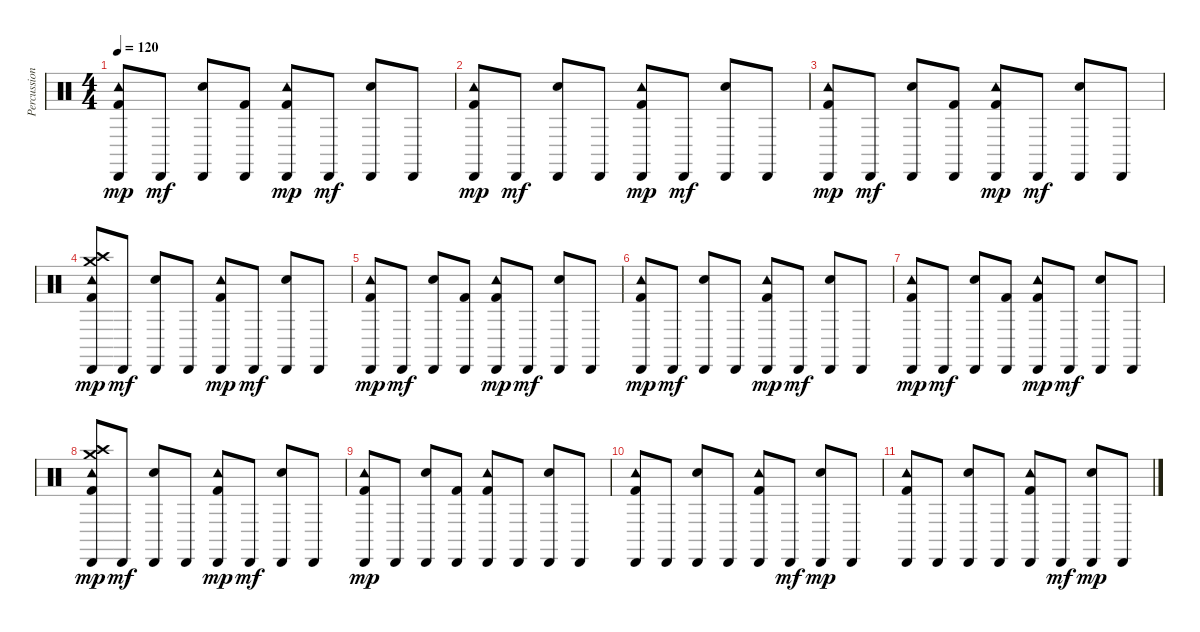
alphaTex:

\track ("Percussions" "Percussion") {instrument percussion}
\staff {score}
\articulation defaults
\ts (4 4)
\tempo 120
\clef neutral
\ks c
("Tambourine (hit)" "Cabasa (hit)" "Kick (hit) 2").8{dy mp} "Cabasa (hit)".8{dy mf} ("Cabasa (hit)" "Electric Snare (hit)").8 ("Cabasa (hit)" "Kick (hit) 2").8 ("Tambourine (hit)" "Cabasa (hit)" "Kick (hit) 2").8{dy mp} "Cabasa (hit)".8{dy mf} ("Cabasa (hit)" "Electric Snare (hit)").8 "Cabasa (hit)".8 |
("Tambourine (hit)" "Cabasa (hit)" "Kick (hit) 2").8{dy mp} "Cabasa (hit)".8{dy mf} ("Cabasa (hit)" "Electric Snare (hit)").8 "Cabasa (hit)".8 ("Tambourine (hit)" "Cabasa (hit)" "Kick (hit) 2").8{dy mp} "Cabasa (hit)".8{dy mf} ("Cabasa (hit)" "Electric Snare (hit)").8 "Cabasa (hit)".8 |
("Tambourine (hit)" "Cabasa (hit)" "Kick (hit) 2").8{dy mp} "Cabasa (hit)".8{dy mf} ("Cabasa (hit)" "Electric Snare (hit)").8 ("Cabasa (hit)" "Kick (hit) 2").8 ("Tambourine (hit)" "Cabasa (hit)" "Kick (hit) 2").8{dy mp} "Cabasa (hit)".8{dy mf} ("Cabasa (hit)" "Electric Snare (hit)").8 "Cabasa (hit)".8 |
("Tambourine (hit)" "Cabasa (hit)" "Crash medium (hit)" "Crash high (hit)" "Kick (hit) 2").8{dy mp} "Cabasa (hit)".8{dy mf} ("Cabasa (hit)" "Electric Snare (hit)").8 "Cabasa (hit)".8 ("Tambourine (hit)" "Cabasa (hit)" "Kick (hit) 2").8{dy mp} "Cabasa (hit)".8{dy mf} ("Cabasa (hit)" "Electric Snare (hit)").8 "Cabasa (hit)".8 |
("Tambourine (hit)" "Cabasa (hit)" "Kick (hit) 2").8{dy mp} "Cabasa (hit)".8{dy mf} ("Cabasa (hit)" "Electric Snare (hit)").8 ("Cabasa (hit)" "Kick (hit) 2").8 ("Tambourine (hit)" "Cabasa (hit)" "Kick (hit) 2").8{dy mp} "Cabasa (hit)".8{dy mf} ("Cabasa (hit)" "Electric Snare (hit)").8 "Cabasa (hit)".8 |
("Tambourine (hit)" "Cabasa (hit)" "Kick (hit) 2").8{dy mp} "Cabasa (hit)".8{dy mf} ("Cabasa (hit)" "Electric Snare (hit)").8 "Cabasa (hit)".8 ("Tambourine (hit)" "Cabasa (hit)" "Kick (hit) 2").8{dy mp} "Cabasa (hit)".8{dy mf} ("Cabasa (hit)" "Electric Snare (hit)").8 "Cabasa (hit)".8 |
("Tambourine (hit)" "Cabasa (hit)" "Kick (hit) 2").8{dy mp} "Cabasa (hit)".8{dy mf} ("Cabasa (hit)" "Electric Snare (hit)").8 ("Cabasa (hit)" "Kick (hit) 2").8 ("Tambourine (hit)" "Cabasa (hit)" "Kick (hit) 2").8{dy mp} "Cabasa (hit)".8{dy mf} ("Cabasa (hit)" "Electric Snare (hit)").8 "Cabasa (hit)".8 |
("Tambourine (hit)" "Cabasa (hit)" "Crash medium (hit)" "Crash high (hit)" "Kick (hit) 2").8{dy mp} "Cabasa (hit)".8{dy mf} ("Cabasa (hit)" "Electric Snare (hit)").8 "Cabasa (hit)".8 ("Tambourine (hit)" "Cabasa (hit)" "Kick (hit) 2").8{dy mp} "Cabasa (hit)".8{dy mf} ("Cabasa (hit)" "Electric Snare (hit)").8 "Cabasa (hit)".8 |
("Tambourine (hit)" "Cabasa (hit)" "Kick (hit) 2").8{dy mp volume 0} "Cabasa (hit)".8 ("Cabasa (hit)" "Electric Snare (hit)").8 ("Cabasa (hit)" "Kick (hit) 2").8 ("Tambourine (hit)" "Cabasa (hit)" "Kick (hit) 2").8 "Cabasa (hit)".8 ("Cabasa (hit)" "Electric Snare (hit)").8 "Cabasa (hit)".8 |
("Tambourine (hit)" "Cabasa (hit)" "Kick (hit) 2").8 "Cabasa (hit)".8 ("Cabasa (hit)" "Electric Snare (hit)").8 "Cabasa (hit)".8 ("Tambourine (hit)" "Cabasa (hit)" "Kick (hit) 2").8 "Cabasa (hit)".8{dy mf} ("Cabasa (hit)" "Electric Snare (hit)").8{dy mp} "Cabasa (hit)".8 |
("Tambourine (hit)" "Cabasa (hit)" "Kick (hit) 2").8 "Cabasa (hit)".8 ("Cabasa (hit)" "Electric Snare (hit)").8 "Cabasa (hit)".8 ("Tambourine (hit)" "Cabasa (hit)" "Kick (hit) 2").8 "Cabasa (hit)".8{dy mf} ("Cabasa (hit)" "Electric Snare (hit)").8{dy mp} "Cabasa (hit)".8
